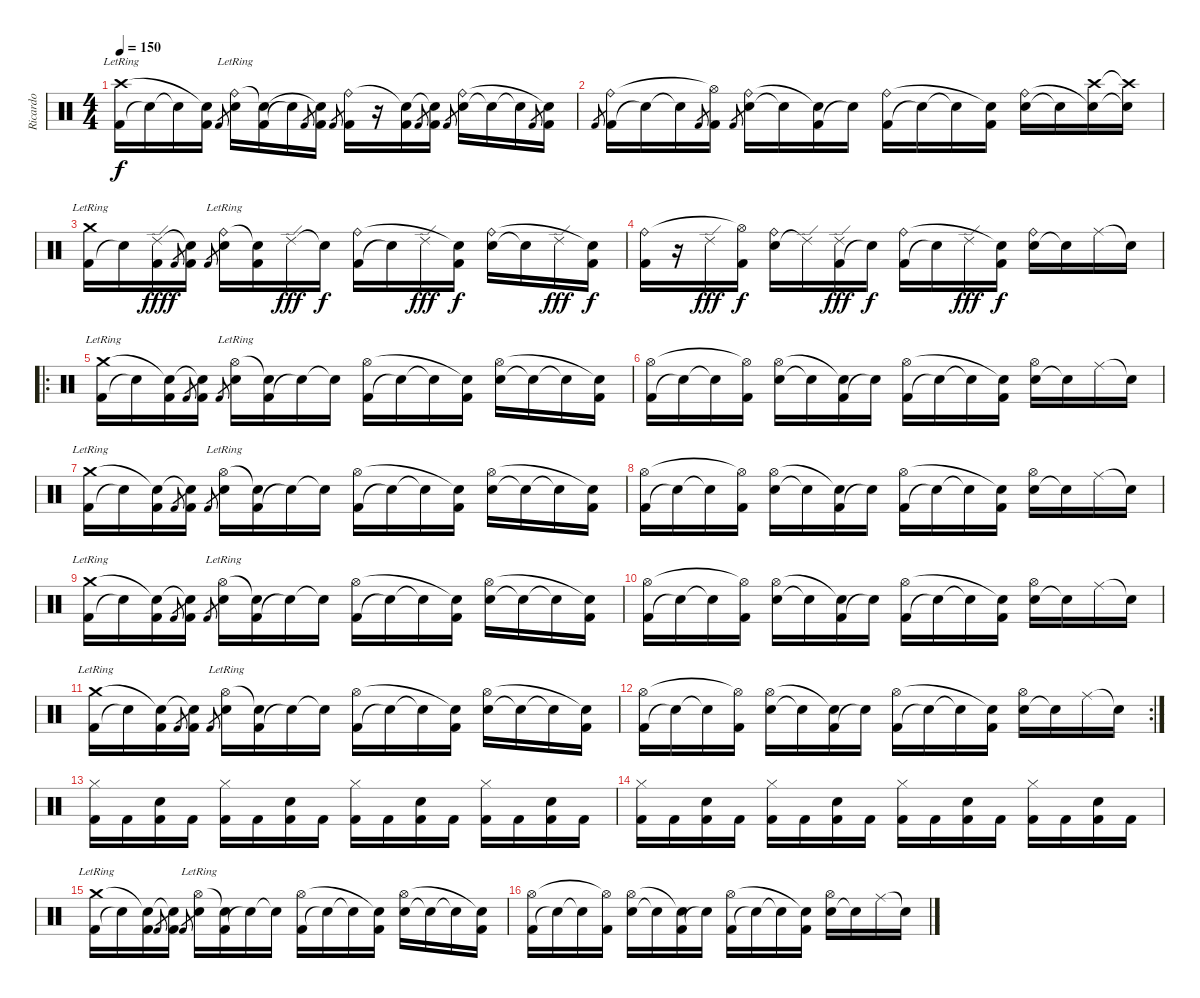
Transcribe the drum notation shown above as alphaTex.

\track ("Ricardo" "Ricardo") {instrument percussion}
\staff {score}
\articulation defaults
\ts (4 4)
\tempo 150
\clef neutral
\ks c
("Kick (hit) 2" "Crash high (hit)"{lr}).16{dy f} "Snare (hit)"{t}.16 "Snare (hit)"{t}.16 ("Kick (hit) 2" "Snare (hit)"{t}).16 "Kick (hit) 2".8{gr} ("Snare (hit) 2" "Ride (bell)"{lr}).16 ("Kick (hit) 2" "Snare (hit)"{t}).16 "Snare (hit)"{t}.16 "Kick (hit) 2".8{gr} ("Kick (hit) 2" "Snare (hit)"{t}).16 "Kick (hit) 2".8{gr} ("Kick (hit) 2" "Ride (bell)").16 r.16 ("Kick (hit) 2" "Snare (hit)"{t}).16 "Kick (hit) 2".8{gr} ("Kick (hit) 2" "Snare (hit)"{t}).16 "Kick (hit) 2".8{gr} ("Snare (hit) 2" "Ride (bell)").16 "Snare (hit)"{t}.16 "Snare (hit)"{t}.16 "Kick (hit) 2".8{gr} ("Kick (hit) 2" "Snare (hit)"{t}).16 |
"Kick (hit) 2".8{gr} ("Kick (hit) 2" "Ride (bell)").16 "Snare (hit)"{t}.16 "Snare (hit)"{t}.16 "Kick (hit) 2".8{gr} ("Kick (hit) 2" "Hi-Hat (open)"{t}).16 "Kick (hit) 2".8{gr} ("Snare (hit) 2" "Ride (bell)").16 "Snare (hit)"{t}.16 ("Kick (hit) 2" "Snare (hit)"{t}).16 "Snare (hit)"{t}.16 ("Kick (hit) 2" "Ride (bell)").16 "Snare (hit)"{t}.16 "Snare (hit)"{t}.16 ("Kick (hit) 2" "Snare (hit)"{t}).16 ("Snare (hit) 2" "Ride (bell)").16 "Snare (hit)"{t}.16 ("Crash high (hit)" "Snare (hit)"{t}).16 ("Crash high (hit)"{t} "Snare (hit)"{t}).16 |
("Kick (hit) 2" "Crash medium (hit)"{lr}).16 "Snare (hit)"{t}.16 ("Kick (hit) 2" "Ride (edge) 2").16{dy fff} "Kick (hit) 2".8{gr dy f} ("Kick (hit) 2" "Snare (hit)"{t}).16 "Kick (hit) 2".8{gr} ("Snare (hit) 2" "Ride (bell)"{lr}).16 ("Kick (hit) 2" "Snare (hit)"{t}).16 "Ride (edge) 2".16{dy fff} "Snare (hit)"{t}.16{dy f} ("Kick (hit) 2" "Ride (bell)").16 "Snare (hit)"{t}.16 "Ride (edge) 2".16{dy fff} ("Kick (hit) 2" "Snare (hit)"{t}).16{dy f} ("Snare (hit) 2" "Ride (bell)").16 "Snare (hit)"{t}.16 "Ride (edge) 2".16{dy fff} ("Kick (hit) 2" "Snare (hit)"{t}).16{dy f} |
("Kick (hit) 2" "Ride (bell)").16 r.16 "Ride (edge) 2".16{dy fff} ("Kick (hit) 2" "Hi-Hat (open)"{t}).16{dy f} ("Snare (hit) 2" "Ride (bell)").16 "Ride (edge) 2"{t}.16 ("Kick (hit) 2" "Ride (edge) 2").16{dy fff} "Snare (hit)"{t}.16{dy f} ("Kick (hit) 2" "Ride (bell)").16 "Snare (hit)"{t}.16 "Ride (edge) 2".16{dy fff} ("Kick (hit) 2" "Snare (hit)"{t}).16{dy f} ("Snare (hit) 2" "Ride (bell)").16 "Snare (hit)"{t}.16 "Ride (middle)".16 "Snare (hit)"{t}.16 |
\ro
("Kick (hit) 2" "Crash medium (hit)"{lr}).16 "Snare (hit)"{t}.16 ("Kick (hit) 2" "Snare (hit)"{t}).16 "Kick (hit) 2".8{gr} ("Kick (hit) 2" "Snare (hit)"{t}).16 "Kick (hit) 2".8{gr} ("Snare (hit) 2" "Hi-Hat (open)"{lr}).16 ("Kick (hit) 2" "Snare (hit)"{t}).16 "Snare (hit)"{t}.16 "Snare (hit)"{t}.16 ("Kick (hit) 2" "Hi-Hat (open)").16 "Snare (hit)"{t}.16 "Snare (hit)"{t}.16 ("Kick (hit) 2" "Snare (hit)"{t}).16 ("Snare (hit) 2" "Hi-Hat (open)").16 "Snare (hit)"{t}.16 "Snare (hit)"{t}.16 ("Kick (hit) 2" "Snare (hit)"{t}).16 |
("Kick (hit) 2" "Hi-Hat (open)").16 "Snare (hit)"{t}.16 "Snare (hit)"{t}.16 ("Kick (hit) 2" "Hi-Hat (open)"{t}).16 ("Snare (hit) 2" "Hi-Hat (open)").16 "Snare (hit)"{t}.16 ("Kick (hit) 2" "Snare (hit)"{t}).16 "Snare (hit)"{t}.16 ("Kick (hit) 2" "Hi-Hat (open)").16 "Snare (hit)"{t}.16 "Snare (hit)"{t}.16 ("Kick (hit) 2" "Snare (hit)"{t}).16 ("Snare (hit) 2" "Hi-Hat (open)").16 "Snare (hit)"{t}.16 "Ride (middle)".16 "Snare (hit)"{t}.16 |
("Kick (hit) 2" "Crash medium (hit)"{lr}).16 "Snare (hit)"{t}.16 ("Kick (hit) 2" "Snare (hit)"{t}).16 "Kick (hit) 2".8{gr} ("Kick (hit) 2" "Snare (hit)"{t}).16 "Kick (hit) 2".8{gr} ("Snare (hit) 2" "Hi-Hat (open)"{lr}).16 ("Kick (hit) 2" "Snare (hit)"{t}).16 "Snare (hit)"{t}.16 "Snare (hit)"{t}.16 ("Kick (hit) 2" "Hi-Hat (open)").16 "Snare (hit)"{t}.16 "Snare (hit)"{t}.16 ("Kick (hit) 2" "Snare (hit)"{t}).16 ("Snare (hit) 2" "Hi-Hat (open)").16 "Snare (hit)"{t}.16 "Snare (hit)"{t}.16 ("Kick (hit) 2" "Snare (hit)"{t}).16 |
("Kick (hit) 2" "Hi-Hat (open)").16 "Snare (hit)"{t}.16 "Snare (hit)"{t}.16 ("Kick (hit) 2" "Hi-Hat (open)"{t}).16 ("Snare (hit) 2" "Hi-Hat (open)").16 "Snare (hit)"{t}.16 ("Kick (hit) 2" "Snare (hit)"{t}).16 "Snare (hit)"{t}.16 ("Kick (hit) 2" "Hi-Hat (open)").16 "Snare (hit)"{t}.16 "Snare (hit)"{t}.16 ("Kick (hit) 2" "Snare (hit)"{t}).16 ("Snare (hit) 2" "Hi-Hat (open)").16 "Snare (hit)"{t}.16 "Ride (middle)".16 "Snare (hit)"{t}.16 |
("Kick (hit) 2" "Crash medium (hit)"{lr}).16 "Snare (hit)"{t}.16 ("Kick (hit) 2" "Snare (hit)"{t}).16 "Kick (hit) 2".8{gr} ("Kick (hit) 2" "Snare (hit)"{t}).16 "Kick (hit) 2".8{gr} ("Snare (hit) 2" "Hi-Hat (open)"{lr}).16 ("Kick (hit) 2" "Snare (hit)"{t}).16 "Snare (hit)"{t}.16 "Snare (hit)"{t}.16 ("Kick (hit) 2" "Hi-Hat (open)").16 "Snare (hit)"{t}.16 "Snare (hit)"{t}.16 ("Kick (hit) 2" "Snare (hit)"{t}).16 ("Snare (hit) 2" "Hi-Hat (open)").16 "Snare (hit)"{t}.16 "Snare (hit)"{t}.16 ("Kick (hit) 2" "Snare (hit)"{t}).16 |
("Kick (hit) 2" "Hi-Hat (open)").16 "Snare (hit)"{t}.16 "Snare (hit)"{t}.16 ("Kick (hit) 2" "Hi-Hat (open)"{t}).16 ("Snare (hit) 2" "Hi-Hat (open)").16 "Snare (hit)"{t}.16 ("Kick (hit) 2" "Snare (hit)"{t}).16 "Snare (hit)"{t}.16 ("Kick (hit) 2" "Hi-Hat (open)").16 "Snare (hit)"{t}.16 "Snare (hit)"{t}.16 ("Kick (hit) 2" "Snare (hit)"{t}).16 ("Snare (hit) 2" "Hi-Hat (open)").16 "Snare (hit)"{t}.16 "Ride (middle)".16 "Snare (hit)"{t}.16 |
("Kick (hit) 2" "Crash medium (hit)"{lr}).16 "Snare (hit)"{t}.16 ("Kick (hit) 2" "Snare (hit)"{t}).16 "Kick (hit) 2".8{gr} ("Kick (hit) 2" "Snare (hit)"{t}).16 "Kick (hit) 2".8{gr} ("Snare (hit) 2" "Hi-Hat (open)"{lr}).16 ("Kick (hit) 2" "Snare (hit)"{t}).16 "Snare (hit)"{t}.16 "Snare (hit)"{t}.16 ("Kick (hit) 2" "Hi-Hat (open)").16 "Snare (hit)"{t}.16 "Snare (hit)"{t}.16 ("Kick (hit) 2" "Snare (hit)"{t}).16 ("Snare (hit) 2" "Hi-Hat (open)").16 "Snare (hit)"{t}.16 "Snare (hit)"{t}.16 ("Kick (hit) 2" "Snare (hit)"{t}).16 |
\rc 2
("Kick (hit) 2" "Hi-Hat (open)").16 "Snare (hit)"{t}.16 "Snare (hit)"{t}.16 ("Kick (hit) 2" "Hi-Hat (open)"{t}).16 ("Snare (hit) 2" "Hi-Hat (open)").16 "Snare (hit)"{t}.16 ("Kick (hit) 2" "Snare (hit)"{t}).16 "Snare (hit)"{t}.16 ("Kick (hit) 2" "Hi-Hat (open)").16 "Snare (hit)"{t}.16 "Snare (hit)"{t}.16 ("Kick (hit) 2" "Snare (hit)"{t}).16 ("Snare (hit) 2" "Hi-Hat (open)").16 "Snare (hit)"{t}.16 "Ride (middle)".16 "Snare (hit)"{t}.16 |
("Kick (hit) 2" "Hi-Hat (closed)").16 "Kick (hit) 2".16 ("Kick (hit) 2" "Snare (hit) 2").16 "Kick (hit) 2".16 ("Kick (hit) 2" "Hi-Hat (closed)").16 "Kick (hit) 2".16 ("Kick (hit) 2" "Snare (hit) 2").16 "Kick (hit) 2".16 ("Kick (hit) 2" "Hi-Hat (closed)").16 "Kick (hit) 2".16 ("Kick (hit) 2" "Snare (hit) 2").16 "Kick (hit) 2".16 ("Kick (hit) 2" "Hi-Hat (closed)").16 "Kick (hit) 2".16 ("Kick (hit) 2" "Snare (hit) 2").16 "Kick (hit) 2".16 |
("Kick (hit) 2" "Hi-Hat (closed)").16 "Kick (hit) 2".16 ("Kick (hit) 2" "Snare (hit) 2").16 "Kick (hit) 2".16 ("Kick (hit) 2" "Hi-Hat (closed)").16 "Kick (hit) 2".16 ("Kick (hit) 2" "Snare (hit) 2").16 "Kick (hit) 2".16 ("Kick (hit) 2" "Hi-Hat (closed)").16 "Kick (hit) 2".16 ("Kick (hit) 2" "Snare (hit) 2").16 "Kick (hit) 2".16 ("Kick (hit) 2" "Hi-Hat (closed)").16 "Kick (hit) 2".16 ("Kick (hit) 2" "Snare (hit) 2").16 "Kick (hit) 2".16 |
("Kick (hit) 2" "Crash medium (hit)"{lr}).16 "Snare (hit)"{t}.16 ("Kick (hit) 2" "Snare (hit)"{t}).16 "Kick (hit) 2".8{gr} ("Kick (hit) 2" "Snare (hit)"{t}).16 "Kick (hit) 2".8{gr} ("Snare (hit) 2" "Hi-Hat (open)"{lr}).16 ("Kick (hit) 2" "Snare (hit)"{t}).16 "Snare (hit)"{t}.16 "Snare (hit)"{t}.16 ("Kick (hit) 2" "Hi-Hat (open)").16 "Snare (hit)"{t}.16 "Snare (hit)"{t}.16 ("Kick (hit) 2" "Snare (hit)"{t}).16 ("Snare (hit) 2" "Hi-Hat (open)").16 "Snare (hit)"{t}.16 "Snare (hit)"{t}.16 ("Kick (hit) 2" "Snare (hit)"{t}).16 |
("Kick (hit) 2" "Hi-Hat (open)").16 "Snare (hit)"{t}.16 "Snare (hit)"{t}.16 ("Kick (hit) 2" "Hi-Hat (open)"{t}).16 ("Snare (hit) 2" "Hi-Hat (open)").16 "Snare (hit)"{t}.16 ("Kick (hit) 2" "Snare (hit)"{t}).16 "Snare (hit)"{t}.16 ("Kick (hit) 2" "Hi-Hat (open)").16 "Snare (hit)"{t}.16 "Snare (hit)"{t}.16 ("Kick (hit) 2" "Snare (hit)"{t}).16 ("Snare (hit) 2" "Hi-Hat (open)").16 "Snare (hit)"{t}.16 "Ride (middle)".16 "Snare (hit)"{t}.16
